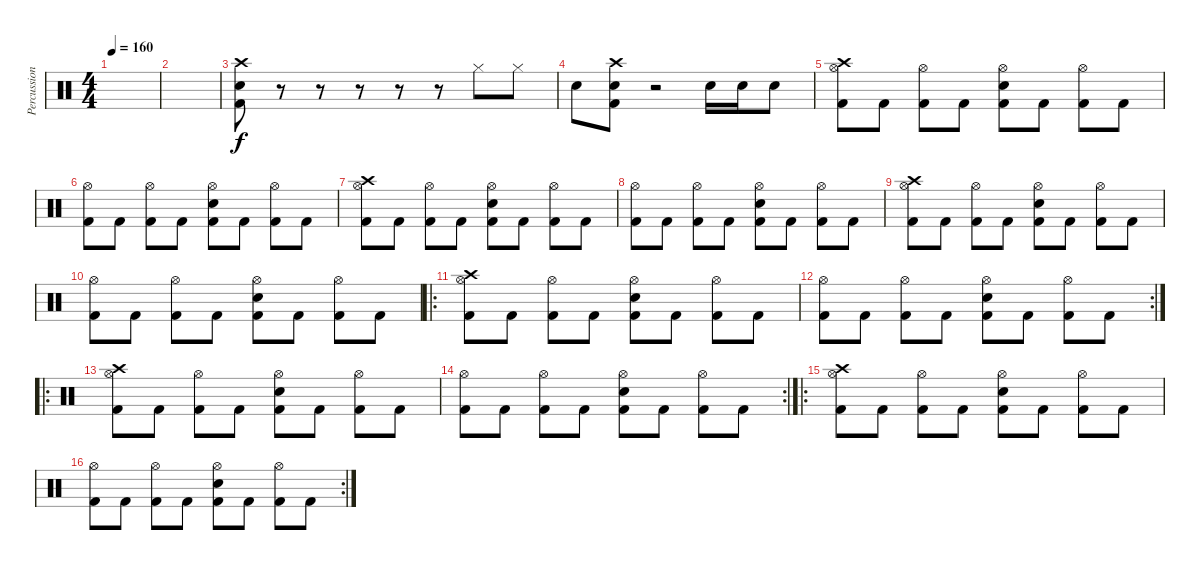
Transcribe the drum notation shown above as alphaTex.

\track ("Percussion" "Percussion") {instrument percussion}
\staff {score}
\articulation defaults
\ts (4 4)
\tempo 160
\clef neutral
\ks c
|
|
("Crash high (hit)" "Electric Snare (hit)" "Kick (hit) 2").8 r.8 r.8 r.8 r.8 r.8 "Hi-Hat (closed)".8 "Hi-Hat (closed)".8 |
"Electric Snare (hit)".8 ("Crash high (hit)" "Electric Snare (hit)" "Kick (hit) 2").8 r.2 "Electric Snare (hit)".16 "Electric Snare (hit)".16 "Electric Snare (hit)".8 |
("Crash high (hit)" "Hi-Hat (open)" "Kick (hit) 2").8 "Kick (hit) 2".8 ("Hi-Hat (open)" "Kick (hit) 2").8 "Kick (hit) 2".8 ("Hi-Hat (open)" "Electric Snare (hit)" "Kick (hit) 2").8 "Kick (hit) 2".8 ("Hi-Hat (open)" "Kick (hit) 2").8 "Kick (hit) 2".8 |
("Hi-Hat (open)" "Kick (hit) 2").8 "Kick (hit) 2".8 ("Hi-Hat (open)" "Kick (hit) 2").8 "Kick (hit) 2".8 ("Hi-Hat (open)" "Electric Snare (hit)" "Kick (hit) 2").8 "Kick (hit) 2".8 ("Hi-Hat (open)" "Kick (hit) 2").8 "Kick (hit) 2".8 |
("Crash high (hit)" "Hi-Hat (open)" "Kick (hit) 2").8 "Kick (hit) 2".8 ("Hi-Hat (open)" "Kick (hit) 2").8 "Kick (hit) 2".8 ("Hi-Hat (open)" "Electric Snare (hit)" "Kick (hit) 2").8 "Kick (hit) 2".8 ("Hi-Hat (open)" "Kick (hit) 2").8 "Kick (hit) 2".8 |
("Hi-Hat (open)" "Kick (hit) 2").8 "Kick (hit) 2".8 ("Hi-Hat (open)" "Kick (hit) 2").8 "Kick (hit) 2".8 ("Hi-Hat (open)" "Electric Snare (hit)" "Kick (hit) 2").8 "Kick (hit) 2".8 ("Hi-Hat (open)" "Kick (hit) 2").8 "Kick (hit) 2".8 |
("Crash high (hit)" "Hi-Hat (open)" "Kick (hit) 2").8 "Kick (hit) 2".8 ("Hi-Hat (open)" "Kick (hit) 2").8 "Kick (hit) 2".8 ("Hi-Hat (open)" "Electric Snare (hit)" "Kick (hit) 2").8 "Kick (hit) 2".8 ("Hi-Hat (open)" "Kick (hit) 2").8 "Kick (hit) 2".8 |
("Hi-Hat (open)" "Kick (hit) 2").8 "Kick (hit) 2".8 ("Hi-Hat (open)" "Kick (hit) 2").8 "Kick (hit) 2".8 ("Hi-Hat (open)" "Electric Snare (hit)" "Kick (hit) 2").8 "Kick (hit) 2".8 ("Hi-Hat (open)" "Kick (hit) 2").8 "Kick (hit) 2".8 |
\ro
("Crash high (hit)" "Hi-Hat (open)" "Kick (hit) 2").8 "Kick (hit) 2".8 ("Hi-Hat (open)" "Kick (hit) 2").8 "Kick (hit) 2".8 ("Hi-Hat (open)" "Electric Snare (hit)" "Kick (hit) 2").8 "Kick (hit) 2".8 ("Hi-Hat (open)" "Kick (hit) 2").8 "Kick (hit) 2".8 |
\rc 2
("Hi-Hat (open)" "Kick (hit) 2").8 "Kick (hit) 2".8 ("Hi-Hat (open)" "Kick (hit) 2").8 "Kick (hit) 2".8 ("Hi-Hat (open)" "Electric Snare (hit)" "Kick (hit) 2").8 "Kick (hit) 2".8 ("Hi-Hat (open)" "Kick (hit) 2").8 "Kick (hit) 2".8 |
\ro
("Crash high (hit)" "Hi-Hat (open)" "Kick (hit) 2").8 "Kick (hit) 2".8 ("Hi-Hat (open)" "Kick (hit) 2").8 "Kick (hit) 2".8 ("Hi-Hat (open)" "Electric Snare (hit)" "Kick (hit) 2").8 "Kick (hit) 2".8 ("Hi-Hat (open)" "Kick (hit) 2").8 "Kick (hit) 2".8 |
\rc 2
("Hi-Hat (open)" "Kick (hit) 2").8 "Kick (hit) 2".8 ("Hi-Hat (open)" "Kick (hit) 2").8 "Kick (hit) 2".8 ("Hi-Hat (open)" "Electric Snare (hit)" "Kick (hit) 2").8 "Kick (hit) 2".8 ("Hi-Hat (open)" "Kick (hit) 2").8 "Kick (hit) 2".8 |
\ro
("Crash high (hit)" "Hi-Hat (open)" "Kick (hit) 2").8 "Kick (hit) 2".8 ("Hi-Hat (open)" "Kick (hit) 2").8 "Kick (hit) 2".8 ("Hi-Hat (open)" "Electric Snare (hit)" "Kick (hit) 2").8 "Kick (hit) 2".8 ("Hi-Hat (open)" "Kick (hit) 2").8 "Kick (hit) 2".8 |
\rc 2
("Hi-Hat (open)" "Kick (hit) 2").8 "Kick (hit) 2".8 ("Hi-Hat (open)" "Kick (hit) 2").8 "Kick (hit) 2".8 ("Hi-Hat (open)" "Electric Snare (hit)" "Kick (hit) 2").8 "Kick (hit) 2".8 ("Hi-Hat (open)" "Kick (hit) 2").8 "Kick (hit) 2".8
